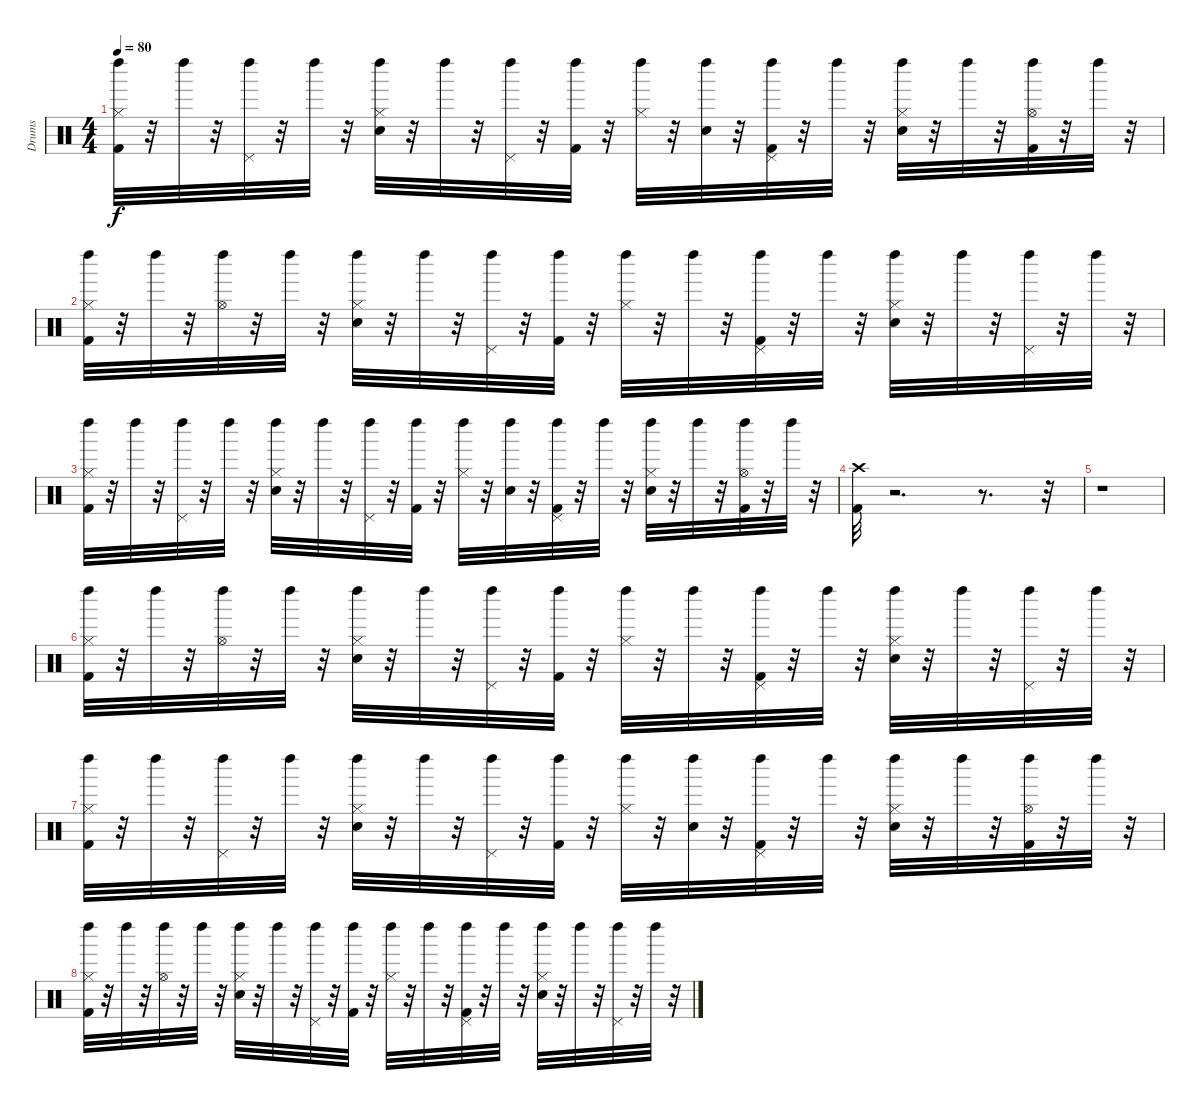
\track ("Drums" "Drums") {instrument percussion}
\staff {score}
\articulation defaults
\ts (4 4)
\tempo 80
\clef neutral
\ks c
("Left Maraca (hit)" "Kick (hit) 2" "Hi-Hat (closed)").32{dy f} r.32 "Left Maraca (hit)".32 r.32 ("Left Maraca (hit)" "Pedal Hi-Hat (hit)").32 r.32 "Left Maraca (hit)".32 r.32 ("Left Maraca (hit)" "Snare (hit) 2" "Hi-Hat (closed)").32 r.32 "Left Maraca (hit)".32 r.32 ("Left Maraca (hit)" "Pedal Hi-Hat (hit)").32 r.32 ("Left Maraca (hit)" "Kick (hit) 2").32 r.32 ("Left Maraca (hit)" "Hi-Hat (closed)").32 r.32 ("Left Maraca (hit)" "Snare (hit) 2").32 r.32 ("Left Maraca (hit)" "Kick (hit) 2" "Pedal Hi-Hat (hit)").32 r.32 "Left Maraca (hit)".32 r.32 ("Left Maraca (hit)" "Snare (hit) 2" "Hi-Hat (closed)").32 r.32 "Left Maraca (hit)".32 r.32 ("Left Maraca (hit)" "Hi-Hat (open)" "Kick (hit) 2").32 r.32 "Left Maraca (hit)".32 r.32 |
("Left Maraca (hit)" "Kick (hit) 2" "Hi-Hat (closed)").32 r.32 "Left Maraca (hit)".32 r.32 ("Left Maraca (hit)" "Hi-Hat (open)").32 r.32 "Left Maraca (hit)".32 r.32 ("Left Maraca (hit)" "Snare (hit) 2" "Hi-Hat (closed)").32 r.32 "Left Maraca (hit)".32 r.32 ("Left Maraca (hit)" "Pedal Hi-Hat (hit)").32 r.32 ("Left Maraca (hit)" "Kick (hit) 2").32 r.32 ("Left Maraca (hit)" "Hi-Hat (closed)").32 r.32 "Left Maraca (hit)".32 r.32 ("Left Maraca (hit)" "Kick (hit) 2" "Pedal Hi-Hat (hit)").32 r.32 "Left Maraca (hit)".32 r.32 ("Left Maraca (hit)" "Snare (hit) 2" "Hi-Hat (closed)").32 r.32 "Left Maraca (hit)".32 r.32 ("Left Maraca (hit)" "Pedal Hi-Hat (hit)").32 r.32 "Left Maraca (hit)".32 r.32 |
("Left Maraca (hit)" "Kick (hit) 2" "Hi-Hat (closed)").32 r.32 "Left Maraca (hit)".32 r.32 ("Left Maraca (hit)" "Pedal Hi-Hat (hit)").32 r.32 "Left Maraca (hit)".32 r.32 ("Left Maraca (hit)" "Snare (hit) 2" "Hi-Hat (closed)").32 r.32 "Left Maraca (hit)".32 r.32 ("Left Maraca (hit)" "Pedal Hi-Hat (hit)").32 r.32 ("Left Maraca (hit)" "Kick (hit) 2").32 r.32 ("Left Maraca (hit)" "Hi-Hat (closed)").32 r.32 ("Left Maraca (hit)" "Snare (hit) 2").32 r.32 ("Left Maraca (hit)" "Kick (hit) 2" "Pedal Hi-Hat (hit)").32 r.32 "Left Maraca (hit)".32 r.32 ("Left Maraca (hit)" "Snare (hit) 2" "Hi-Hat (closed)").32 r.32 "Left Maraca (hit)".32 r.32 ("Left Maraca (hit)" "Hi-Hat (open)" "Kick (hit) 2").32 r.32 "Left Maraca (hit)".32 r.32 |
("Crash high (hit)" "Kick (hit) 2").32 r.2{d} r.8{d} r.32 |
r.1 |
("Left Maraca (hit)" "Kick (hit) 2" "Hi-Hat (closed)").32 r.32 "Left Maraca (hit)".32 r.32 ("Left Maraca (hit)" "Hi-Hat (open)").32 r.32 "Left Maraca (hit)".32 r.32 ("Left Maraca (hit)" "Snare (hit) 2" "Hi-Hat (closed)").32 r.32 "Left Maraca (hit)".32 r.32 ("Left Maraca (hit)" "Pedal Hi-Hat (hit)").32 r.32 ("Left Maraca (hit)" "Kick (hit) 2").32 r.32 ("Left Maraca (hit)" "Hi-Hat (closed)").32 r.32 "Left Maraca (hit)".32 r.32 ("Left Maraca (hit)" "Kick (hit) 2" "Pedal Hi-Hat (hit)").32 r.32 "Left Maraca (hit)".32 r.32 ("Left Maraca (hit)" "Snare (hit) 2" "Hi-Hat (closed)").32 r.32 "Left Maraca (hit)".32 r.32 ("Left Maraca (hit)" "Pedal Hi-Hat (hit)").32 r.32 "Left Maraca (hit)".32 r.32 |
("Left Maraca (hit)" "Kick (hit) 2" "Hi-Hat (closed)").32 r.32 "Left Maraca (hit)".32 r.32 ("Left Maraca (hit)" "Pedal Hi-Hat (hit)").32 r.32 "Left Maraca (hit)".32 r.32 ("Left Maraca (hit)" "Snare (hit) 2" "Hi-Hat (closed)").32 r.32 "Left Maraca (hit)".32 r.32 ("Left Maraca (hit)" "Pedal Hi-Hat (hit)").32 r.32 ("Left Maraca (hit)" "Kick (hit) 2").32 r.32 ("Left Maraca (hit)" "Hi-Hat (closed)").32 r.32 ("Left Maraca (hit)" "Snare (hit) 2").32 r.32 ("Left Maraca (hit)" "Kick (hit) 2" "Pedal Hi-Hat (hit)").32 r.32 "Left Maraca (hit)".32 r.32 ("Left Maraca (hit)" "Snare (hit) 2" "Hi-Hat (closed)").32 r.32 "Left Maraca (hit)".32 r.32 ("Left Maraca (hit)" "Hi-Hat (open)" "Kick (hit) 2").32 r.32 "Left Maraca (hit)".32 r.32 |
("Left Maraca (hit)" "Kick (hit) 2" "Hi-Hat (closed)").32 r.32 "Left Maraca (hit)".32 r.32 ("Left Maraca (hit)" "Hi-Hat (open)").32 r.32 "Left Maraca (hit)".32 r.32 ("Left Maraca (hit)" "Snare (hit) 2" "Hi-Hat (closed)").32 r.32 "Left Maraca (hit)".32 r.32 ("Left Maraca (hit)" "Pedal Hi-Hat (hit)").32 r.32 ("Left Maraca (hit)" "Kick (hit) 2").32 r.32 ("Left Maraca (hit)" "Hi-Hat (closed)").32 r.32 "Left Maraca (hit)".32 r.32 ("Left Maraca (hit)" "Kick (hit) 2" "Pedal Hi-Hat (hit)").32 r.32 "Left Maraca (hit)".32 r.32 ("Left Maraca (hit)" "Snare (hit) 2" "Hi-Hat (closed)").32 r.32 "Left Maraca (hit)".32 r.32 ("Left Maraca (hit)" "Pedal Hi-Hat (hit)").32 r.32 "Left Maraca (hit)".32 r.32
